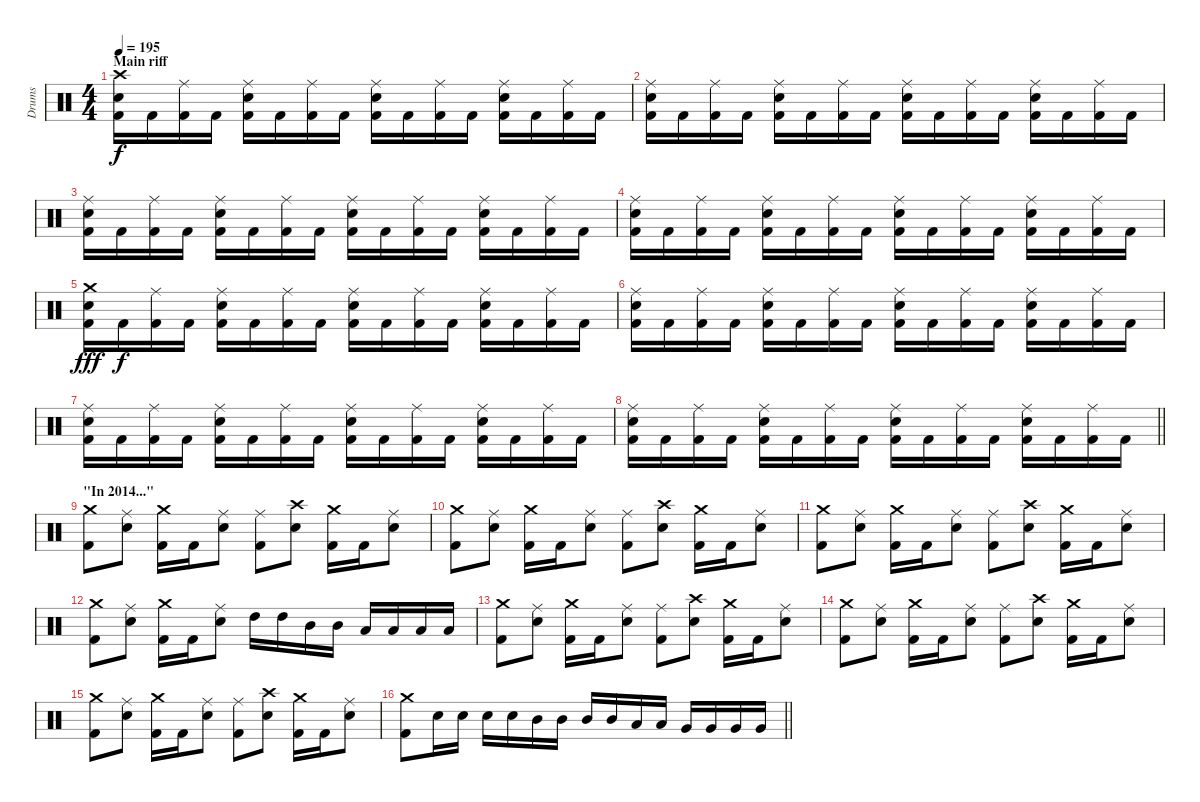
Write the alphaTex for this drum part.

\track ("Drums" "Drums") {instrument percussion}
\staff {score}
\articulation defaults
\ts (4 4)
\section ("" "Main riff")
\tempo 195
\clef neutral
\ks c
("Crash high (hit)" "Snare (hit) 2" "Kick (hit) 2").16{dy f} "Kick (hit) 2".16 ("Ride (middle)" "Kick (hit) 2").16 "Kick (hit) 2".16 ("Ride (middle)" "Snare (hit) 2" "Kick (hit) 2").16 "Kick (hit) 2".16 ("Ride (middle)" "Kick (hit) 2").16 "Kick (hit) 2".16 ("Ride (middle)" "Snare (hit) 2" "Kick (hit) 2").16 "Kick (hit) 2".16 ("Ride (middle)" "Kick (hit) 2").16 "Kick (hit) 2".16 ("Ride (middle)" "Snare (hit) 2" "Kick (hit) 2").16 "Kick (hit) 2".16 ("Ride (middle)" "Kick (hit) 2").16 "Kick (hit) 2".16 |
("Ride (middle)" "Snare (hit) 2" "Kick (hit) 2").16 "Kick (hit) 2".16 ("Ride (middle)" "Kick (hit) 2").16 "Kick (hit) 2".16 ("Ride (middle)" "Snare (hit) 2" "Kick (hit) 2").16 "Kick (hit) 2".16 ("Ride (middle)" "Kick (hit) 2").16 "Kick (hit) 2".16 ("Ride (middle)" "Snare (hit) 2" "Kick (hit) 2").16 "Kick (hit) 2".16 ("Ride (middle)" "Kick (hit) 2").16 "Kick (hit) 2".16 ("Ride (middle)" "Snare (hit) 2" "Kick (hit) 2").16 "Kick (hit) 2".16 ("Ride (middle)" "Kick (hit) 2").16 "Kick (hit) 2".16 |
("Ride (middle)" "Snare (hit) 2" "Kick (hit) 2").16 "Kick (hit) 2".16 ("Ride (middle)" "Kick (hit) 2").16 "Kick (hit) 2".16 ("Ride (middle)" "Snare (hit) 2" "Kick (hit) 2").16 "Kick (hit) 2".16 ("Ride (middle)" "Kick (hit) 2").16 "Kick (hit) 2".16 ("Ride (middle)" "Snare (hit) 2" "Kick (hit) 2").16 "Kick (hit) 2".16 ("Ride (middle)" "Kick (hit) 2").16 "Kick (hit) 2".16 ("Ride (middle)" "Snare (hit) 2" "Kick (hit) 2").16 "Kick (hit) 2".16 ("Ride (middle)" "Kick (hit) 2").16 "Kick (hit) 2".16 |
("Ride (middle)" "Snare (hit) 2" "Kick (hit) 2").16 "Kick (hit) 2".16 ("Ride (middle)" "Kick (hit) 2").16 "Kick (hit) 2".16 ("Ride (middle)" "Snare (hit) 2" "Kick (hit) 2").16 "Kick (hit) 2".16 ("Ride (middle)" "Kick (hit) 2").16 "Kick (hit) 2".16 ("Ride (middle)" "Snare (hit) 2" "Kick (hit) 2").16 "Kick (hit) 2".16 ("Ride (middle)" "Kick (hit) 2").16 "Kick (hit) 2".16 ("Ride (middle)" "Snare (hit) 2" "Kick (hit) 2").16 "Kick (hit) 2".16 ("Ride (middle)" "Kick (hit) 2").16 "Kick (hit) 2".16 |
("Crash medium (hit)" "Snare (hit) 2" "Kick (hit) 2").16{dy fff} "Kick (hit) 2".16{dy f} ("Ride (middle)" "Kick (hit) 2").16 "Kick (hit) 2".16 ("Ride (middle)" "Snare (hit) 2" "Kick (hit) 2").16 "Kick (hit) 2".16 ("Ride (middle)" "Kick (hit) 2").16 "Kick (hit) 2".16 ("Ride (middle)" "Snare (hit) 2" "Kick (hit) 2").16 "Kick (hit) 2".16 ("Ride (middle)" "Kick (hit) 2").16 "Kick (hit) 2".16 ("Ride (middle)" "Snare (hit) 2" "Kick (hit) 2").16 "Kick (hit) 2".16 ("Ride (middle)" "Kick (hit) 2").16 "Kick (hit) 2".16 |
("Ride (middle)" "Snare (hit) 2" "Kick (hit) 2").16 "Kick (hit) 2".16 ("Ride (middle)" "Kick (hit) 2").16 "Kick (hit) 2".16 ("Ride (middle)" "Snare (hit) 2" "Kick (hit) 2").16 "Kick (hit) 2".16 ("Ride (middle)" "Kick (hit) 2").16 "Kick (hit) 2".16 ("Ride (middle)" "Snare (hit) 2" "Kick (hit) 2").16 "Kick (hit) 2".16 ("Ride (middle)" "Kick (hit) 2").16 "Kick (hit) 2".16 ("Ride (middle)" "Snare (hit) 2" "Kick (hit) 2").16 "Kick (hit) 2".16 ("Ride (middle)" "Kick (hit) 2").16 "Kick (hit) 2".16 |
("Ride (middle)" "Snare (hit) 2" "Kick (hit) 2").16 "Kick (hit) 2".16 ("Ride (middle)" "Kick (hit) 2").16 "Kick (hit) 2".16 ("Ride (middle)" "Snare (hit) 2" "Kick (hit) 2").16 "Kick (hit) 2".16 ("Ride (middle)" "Kick (hit) 2").16 "Kick (hit) 2".16 ("Ride (middle)" "Snare (hit) 2" "Kick (hit) 2").16 "Kick (hit) 2".16 ("Ride (middle)" "Kick (hit) 2").16 "Kick (hit) 2".16 ("Ride (middle)" "Snare (hit) 2" "Kick (hit) 2").16 "Kick (hit) 2".16 ("Ride (middle)" "Kick (hit) 2").16 "Kick (hit) 2".16 |
\barLineRight lightlight
("Ride (middle)" "Snare (hit) 2" "Kick (hit) 2").16 "Kick (hit) 2".16 ("Ride (middle)" "Kick (hit) 2").16 "Kick (hit) 2".16 ("Ride (middle)" "Snare (hit) 2" "Kick (hit) 2").16 "Kick (hit) 2".16 ("Ride (middle)" "Kick (hit) 2").16 "Kick (hit) 2".16 ("Ride (middle)" "Snare (hit) 2" "Kick (hit) 2").16 "Kick (hit) 2".16 ("Ride (middle)" "Kick (hit) 2").16 "Kick (hit) 2".16 ("Ride (middle)" "Snare (hit) 2" "Kick (hit) 2").16 "Kick (hit) 2".16 ("Ride (middle)" "Kick (hit) 2").16 "Kick (hit) 2".16 |
\section ("" "\"In 2014...\"")
("Crash medium (hit)" "Kick (hit) 2").8 ("Ride (middle)" "Snare (hit) 2").8 ("Crash medium (hit)" "Kick (hit) 2").16 "Kick (hit) 2".16 ("Ride (middle)" "Snare (hit) 2").8 ("Ride (middle)" "Kick (hit) 2").8 ("Crash high (hit)" "Snare (hit) 2").8 ("Crash medium (hit)" "Kick (hit) 2").16 "Kick (hit) 2".16 ("Ride (middle)" "Snare (hit) 2").8 |
("Crash medium (hit)" "Kick (hit) 2").8 ("Ride (middle)" "Snare (hit) 2").8 ("Crash medium (hit)" "Kick (hit) 2").16 "Kick (hit) 2".16 ("Ride (middle)" "Snare (hit) 2").8 ("Ride (middle)" "Kick (hit) 2").8 ("Crash high (hit)" "Snare (hit) 2").8 ("Crash medium (hit)" "Kick (hit) 2").16 "Kick (hit) 2".16 ("Ride (middle)" "Snare (hit) 2").8 |
("Crash medium (hit)" "Kick (hit) 2").8 ("Ride (middle)" "Snare (hit) 2").8 ("Crash medium (hit)" "Kick (hit) 2").16 "Kick (hit) 2".16 ("Ride (middle)" "Snare (hit) 2").8 ("Ride (middle)" "Kick (hit) 2").8 ("Crash high (hit)" "Snare (hit) 2").8 ("Crash medium (hit)" "Kick (hit) 2").16 "Kick (hit) 2".16 ("Ride (middle)" "Snare (hit) 2").8 |
("Crash medium (hit)" "Kick (hit) 2").8 ("Ride (middle)" "Snare (hit) 2").8 ("Crash medium (hit)" "Kick (hit) 2").16 "Kick (hit) 2".16 ("Ride (middle)" "Snare (hit) 2").8 "High Tom (hit)".16 "High Tom (hit)".16 "Mid Tom (hit)".16 "Mid Tom (hit)".16 "Low Tom (hit)".16 "Low Tom (hit)".16 "Low Tom (hit)".16 "Low Tom (hit)".16 |
("Crash medium (hit)" "Kick (hit) 2").8 ("Ride (middle)" "Snare (hit) 2").8 ("Crash medium (hit)" "Kick (hit) 2").16 "Kick (hit) 2".16 ("Ride (middle)" "Snare (hit) 2").8 ("Ride (middle)" "Kick (hit) 2").8 ("Crash high (hit)" "Snare (hit) 2").8 ("Crash medium (hit)" "Kick (hit) 2").16 "Kick (hit) 2".16 ("Ride (middle)" "Snare (hit) 2").8 |
("Crash medium (hit)" "Kick (hit) 2").8 ("Ride (middle)" "Snare (hit) 2").8 ("Crash medium (hit)" "Kick (hit) 2").16 "Kick (hit) 2".16 ("Ride (middle)" "Snare (hit) 2").8 ("Ride (middle)" "Kick (hit) 2").8 ("Crash high (hit)" "Snare (hit) 2").8 ("Crash medium (hit)" "Kick (hit) 2").16 "Kick (hit) 2".16 ("Ride (middle)" "Snare (hit) 2").8 |
("Crash medium (hit)" "Kick (hit) 2").8 ("Ride (middle)" "Snare (hit) 2").8 ("Crash medium (hit)" "Kick (hit) 2").16 "Kick (hit) 2".16 ("Ride (middle)" "Snare (hit) 2").8 ("Ride (middle)" "Kick (hit) 2").8 ("Crash high (hit)" "Snare (hit) 2").8 ("Crash medium (hit)" "Kick (hit) 2").16 "Kick (hit) 2".16 ("Ride (middle)" "Snare (hit) 2").8 |
\barLineRight lightlight
("Crash medium (hit)" "Kick (hit) 2").8 "Snare (hit) 2".16 "Snare (hit) 2".16 "Snare (hit) 2".16 "Snare (hit) 2".16 "Mid Tom (hit)".16 "Mid Tom (hit)".16 "Mid Tom (hit)".16 "Mid Tom (hit)".16 "Low Tom (hit)".16 "Low Tom (hit)".16 "Very Low Tom (hit)".16 "Very Low Tom (hit)".16 "Very Low Tom (hit)".16 "Very Low Tom (hit)".16
